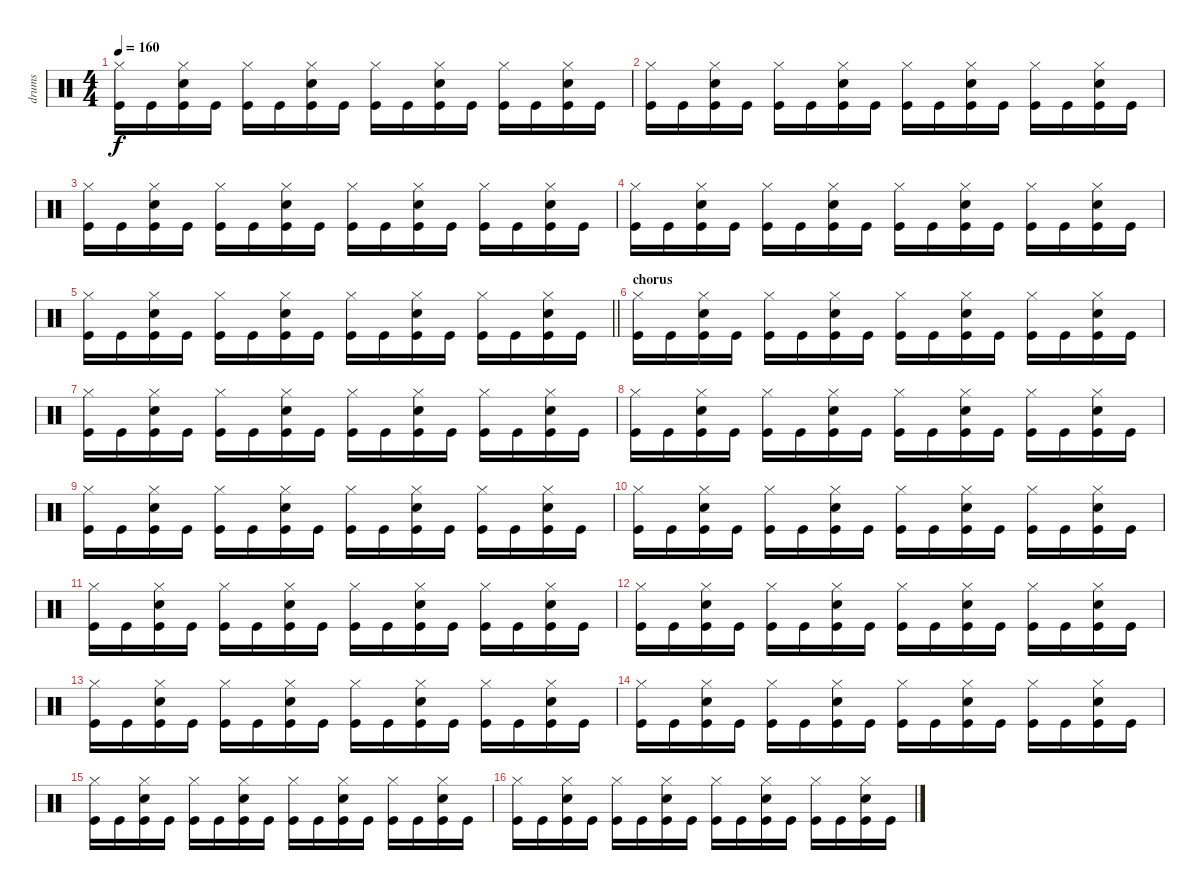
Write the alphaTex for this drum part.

\track ("drums" "drums") {instrument percussion}
\staff {score}
\articulation defaults
\ts (4 4)
\tempo 160
\clef neutral
\ks c
("Kick (hit)" "Hi-Hat (closed)").16{dy f} "Kick (hit)".16 ("Kick (hit)" "Hi-Hat (closed)" "Snare (hit) 2").16 "Kick (hit)".16 ("Kick (hit)" "Hi-Hat (closed)").16 "Kick (hit)".16 ("Kick (hit)" "Hi-Hat (closed)" "Snare (hit) 2").16 "Kick (hit)".16 ("Kick (hit)" "Hi-Hat (closed)").16 "Kick (hit)".16 ("Kick (hit)" "Hi-Hat (closed)" "Snare (hit) 2").16 "Kick (hit)".16 ("Kick (hit)" "Hi-Hat (closed)").16 "Kick (hit)".16 ("Kick (hit)" "Hi-Hat (closed)" "Snare (hit) 2").16 "Kick (hit)".16 |
("Kick (hit)" "Hi-Hat (closed)").16 "Kick (hit)".16 ("Kick (hit)" "Hi-Hat (closed)" "Snare (hit) 2").16 "Kick (hit)".16 ("Kick (hit)" "Hi-Hat (closed)").16 "Kick (hit)".16 ("Kick (hit)" "Hi-Hat (closed)" "Snare (hit) 2").16 "Kick (hit)".16 ("Kick (hit)" "Hi-Hat (closed)").16 "Kick (hit)".16 ("Kick (hit)" "Hi-Hat (closed)" "Snare (hit) 2").16 "Kick (hit)".16 ("Kick (hit)" "Hi-Hat (closed)").16 "Kick (hit)".16 ("Kick (hit)" "Hi-Hat (closed)" "Snare (hit) 2").16 "Kick (hit)".16 |
("Kick (hit)" "Hi-Hat (closed)").16 "Kick (hit)".16 ("Kick (hit)" "Hi-Hat (closed)" "Snare (hit) 2").16 "Kick (hit)".16 ("Kick (hit)" "Hi-Hat (closed)").16 "Kick (hit)".16 ("Kick (hit)" "Hi-Hat (closed)" "Snare (hit) 2").16 "Kick (hit)".16 ("Kick (hit)" "Hi-Hat (closed)").16 "Kick (hit)".16 ("Kick (hit)" "Hi-Hat (closed)" "Snare (hit) 2").16 "Kick (hit)".16 ("Kick (hit)" "Hi-Hat (closed)").16 "Kick (hit)".16 ("Kick (hit)" "Hi-Hat (closed)" "Snare (hit) 2").16 "Kick (hit)".16 |
("Kick (hit)" "Hi-Hat (closed)").16 "Kick (hit)".16 ("Kick (hit)" "Hi-Hat (closed)" "Snare (hit) 2").16 "Kick (hit)".16 ("Kick (hit)" "Hi-Hat (closed)").16 "Kick (hit)".16 ("Kick (hit)" "Hi-Hat (closed)" "Snare (hit) 2").16 "Kick (hit)".16 ("Kick (hit)" "Hi-Hat (closed)").16 "Kick (hit)".16 ("Kick (hit)" "Hi-Hat (closed)" "Snare (hit) 2").16 "Kick (hit)".16 ("Kick (hit)" "Hi-Hat (closed)").16 "Kick (hit)".16 ("Kick (hit)" "Hi-Hat (closed)" "Snare (hit) 2").16 "Kick (hit)".16 |
\barLineRight lightlight
("Kick (hit)" "Hi-Hat (closed)").16 "Kick (hit)".16 ("Kick (hit)" "Hi-Hat (closed)" "Snare (hit) 2").16 "Kick (hit)".16 ("Kick (hit)" "Hi-Hat (closed)").16 "Kick (hit)".16 ("Kick (hit)" "Hi-Hat (closed)" "Snare (hit) 2").16 "Kick (hit)".16 ("Kick (hit)" "Hi-Hat (closed)").16 "Kick (hit)".16 ("Kick (hit)" "Hi-Hat (closed)" "Snare (hit) 2").16 "Kick (hit)".16 ("Kick (hit)" "Hi-Hat (closed)").16 "Kick (hit)".16 ("Kick (hit)" "Hi-Hat (closed)" "Snare (hit) 2").16 "Kick (hit)".16 |
\section ("" "chorus")
("Kick (hit)" "Hi-Hat (closed)").16 "Kick (hit)".16 ("Kick (hit)" "Hi-Hat (closed)" "Snare (hit) 2").16 "Kick (hit)".16 ("Kick (hit)" "Hi-Hat (closed)").16 "Kick (hit)".16 ("Kick (hit)" "Hi-Hat (closed)" "Snare (hit) 2").16 "Kick (hit)".16 ("Kick (hit)" "Hi-Hat (closed)").16 "Kick (hit)".16 ("Kick (hit)" "Hi-Hat (closed)" "Snare (hit) 2").16 "Kick (hit)".16 ("Kick (hit)" "Hi-Hat (closed)").16 "Kick (hit)".16 ("Kick (hit)" "Hi-Hat (closed)" "Snare (hit) 2").16 "Kick (hit)".16 |
("Kick (hit)" "Hi-Hat (closed)").16 "Kick (hit)".16 ("Kick (hit)" "Hi-Hat (closed)" "Snare (hit) 2").16 "Kick (hit)".16 ("Kick (hit)" "Hi-Hat (closed)").16 "Kick (hit)".16 ("Kick (hit)" "Hi-Hat (closed)" "Snare (hit) 2").16 "Kick (hit)".16 ("Kick (hit)" "Hi-Hat (closed)").16 "Kick (hit)".16 ("Kick (hit)" "Hi-Hat (closed)" "Snare (hit) 2").16 "Kick (hit)".16 ("Kick (hit)" "Hi-Hat (closed)").16 "Kick (hit)".16 ("Kick (hit)" "Hi-Hat (closed)" "Snare (hit) 2").16 "Kick (hit)".16 |
("Kick (hit)" "Hi-Hat (closed)").16 "Kick (hit)".16 ("Kick (hit)" "Hi-Hat (closed)" "Snare (hit) 2").16 "Kick (hit)".16 ("Kick (hit)" "Hi-Hat (closed)").16 "Kick (hit)".16 ("Kick (hit)" "Hi-Hat (closed)" "Snare (hit) 2").16 "Kick (hit)".16 ("Kick (hit)" "Hi-Hat (closed)").16 "Kick (hit)".16 ("Kick (hit)" "Hi-Hat (closed)" "Snare (hit) 2").16 "Kick (hit)".16 ("Kick (hit)" "Hi-Hat (closed)").16 "Kick (hit)".16 ("Kick (hit)" "Hi-Hat (closed)" "Snare (hit) 2").16 "Kick (hit)".16 |
("Kick (hit)" "Hi-Hat (closed)").16 "Kick (hit)".16 ("Kick (hit)" "Hi-Hat (closed)" "Snare (hit) 2").16 "Kick (hit)".16 ("Kick (hit)" "Hi-Hat (closed)").16 "Kick (hit)".16 ("Kick (hit)" "Hi-Hat (closed)" "Snare (hit) 2").16 "Kick (hit)".16 ("Kick (hit)" "Hi-Hat (closed)").16 "Kick (hit)".16 ("Kick (hit)" "Hi-Hat (closed)" "Snare (hit) 2").16 "Kick (hit)".16 ("Kick (hit)" "Hi-Hat (closed)").16 "Kick (hit)".16 ("Kick (hit)" "Hi-Hat (closed)" "Snare (hit) 2").16 "Kick (hit)".16 |
("Kick (hit)" "Hi-Hat (closed)").16 "Kick (hit)".16 ("Kick (hit)" "Hi-Hat (closed)" "Snare (hit) 2").16 "Kick (hit)".16 ("Kick (hit)" "Hi-Hat (closed)").16 "Kick (hit)".16 ("Kick (hit)" "Hi-Hat (closed)" "Snare (hit) 2").16 "Kick (hit)".16 ("Kick (hit)" "Hi-Hat (closed)").16 "Kick (hit)".16 ("Kick (hit)" "Hi-Hat (closed)" "Snare (hit) 2").16 "Kick (hit)".16 ("Kick (hit)" "Hi-Hat (closed)").16 "Kick (hit)".16 ("Kick (hit)" "Hi-Hat (closed)" "Snare (hit) 2").16 "Kick (hit)".16 |
("Kick (hit)" "Hi-Hat (closed)").16 "Kick (hit)".16 ("Kick (hit)" "Hi-Hat (closed)" "Snare (hit) 2").16 "Kick (hit)".16 ("Kick (hit)" "Hi-Hat (closed)").16 "Kick (hit)".16 ("Kick (hit)" "Hi-Hat (closed)" "Snare (hit) 2").16 "Kick (hit)".16 ("Kick (hit)" "Hi-Hat (closed)").16 "Kick (hit)".16 ("Kick (hit)" "Hi-Hat (closed)" "Snare (hit) 2").16 "Kick (hit)".16 ("Kick (hit)" "Hi-Hat (closed)").16 "Kick (hit)".16 ("Kick (hit)" "Hi-Hat (closed)" "Snare (hit) 2").16 "Kick (hit)".16 |
("Kick (hit)" "Hi-Hat (closed)").16 "Kick (hit)".16 ("Kick (hit)" "Hi-Hat (closed)" "Snare (hit) 2").16 "Kick (hit)".16 ("Kick (hit)" "Hi-Hat (closed)").16 "Kick (hit)".16 ("Kick (hit)" "Hi-Hat (closed)" "Snare (hit) 2").16 "Kick (hit)".16 ("Kick (hit)" "Hi-Hat (closed)").16 "Kick (hit)".16 ("Kick (hit)" "Hi-Hat (closed)" "Snare (hit) 2").16 "Kick (hit)".16 ("Kick (hit)" "Hi-Hat (closed)").16 "Kick (hit)".16 ("Kick (hit)" "Hi-Hat (closed)" "Snare (hit) 2").16 "Kick (hit)".16 |
("Kick (hit)" "Hi-Hat (closed)").16 "Kick (hit)".16 ("Kick (hit)" "Hi-Hat (closed)" "Snare (hit) 2").16 "Kick (hit)".16 ("Kick (hit)" "Hi-Hat (closed)").16 "Kick (hit)".16 ("Kick (hit)" "Hi-Hat (closed)" "Snare (hit) 2").16 "Kick (hit)".16 ("Kick (hit)" "Hi-Hat (closed)").16 "Kick (hit)".16 ("Kick (hit)" "Hi-Hat (closed)" "Snare (hit) 2").16 "Kick (hit)".16 ("Kick (hit)" "Hi-Hat (closed)").16 "Kick (hit)".16 ("Kick (hit)" "Hi-Hat (closed)" "Snare (hit) 2").16 "Kick (hit)".16 |
("Kick (hit)" "Hi-Hat (closed)").16 "Kick (hit)".16 ("Kick (hit)" "Hi-Hat (closed)" "Snare (hit) 2").16 "Kick (hit)".16 ("Kick (hit)" "Hi-Hat (closed)").16 "Kick (hit)".16 ("Kick (hit)" "Hi-Hat (closed)" "Snare (hit) 2").16 "Kick (hit)".16 ("Kick (hit)" "Hi-Hat (closed)").16 "Kick (hit)".16 ("Kick (hit)" "Hi-Hat (closed)" "Snare (hit) 2").16 "Kick (hit)".16 ("Kick (hit)" "Hi-Hat (closed)").16 "Kick (hit)".16 ("Kick (hit)" "Hi-Hat (closed)" "Snare (hit) 2").16 "Kick (hit)".16 |
("Kick (hit)" "Hi-Hat (closed)").16 "Kick (hit)".16 ("Kick (hit)" "Hi-Hat (closed)" "Snare (hit) 2").16 "Kick (hit)".16 ("Kick (hit)" "Hi-Hat (closed)").16 "Kick (hit)".16 ("Kick (hit)" "Hi-Hat (closed)" "Snare (hit) 2").16 "Kick (hit)".16 ("Kick (hit)" "Hi-Hat (closed)").16 "Kick (hit)".16 ("Kick (hit)" "Hi-Hat (closed)" "Snare (hit) 2").16 "Kick (hit)".16 ("Kick (hit)" "Hi-Hat (closed)").16 "Kick (hit)".16 ("Kick (hit)" "Hi-Hat (closed)" "Snare (hit) 2").16 "Kick (hit)".16 |
("Kick (hit)" "Hi-Hat (closed)").16 "Kick (hit)".16 ("Kick (hit)" "Hi-Hat (closed)" "Snare (hit) 2").16 "Kick (hit)".16 ("Kick (hit)" "Hi-Hat (closed)").16 "Kick (hit)".16 ("Kick (hit)" "Hi-Hat (closed)" "Snare (hit) 2").16 "Kick (hit)".16 ("Kick (hit)" "Hi-Hat (closed)").16 "Kick (hit)".16 ("Kick (hit)" "Hi-Hat (closed)" "Snare (hit) 2").16 "Kick (hit)".16 ("Kick (hit)" "Hi-Hat (closed)").16 "Kick (hit)".16 ("Kick (hit)" "Hi-Hat (closed)" "Snare (hit) 2").16 "Kick (hit)".16
